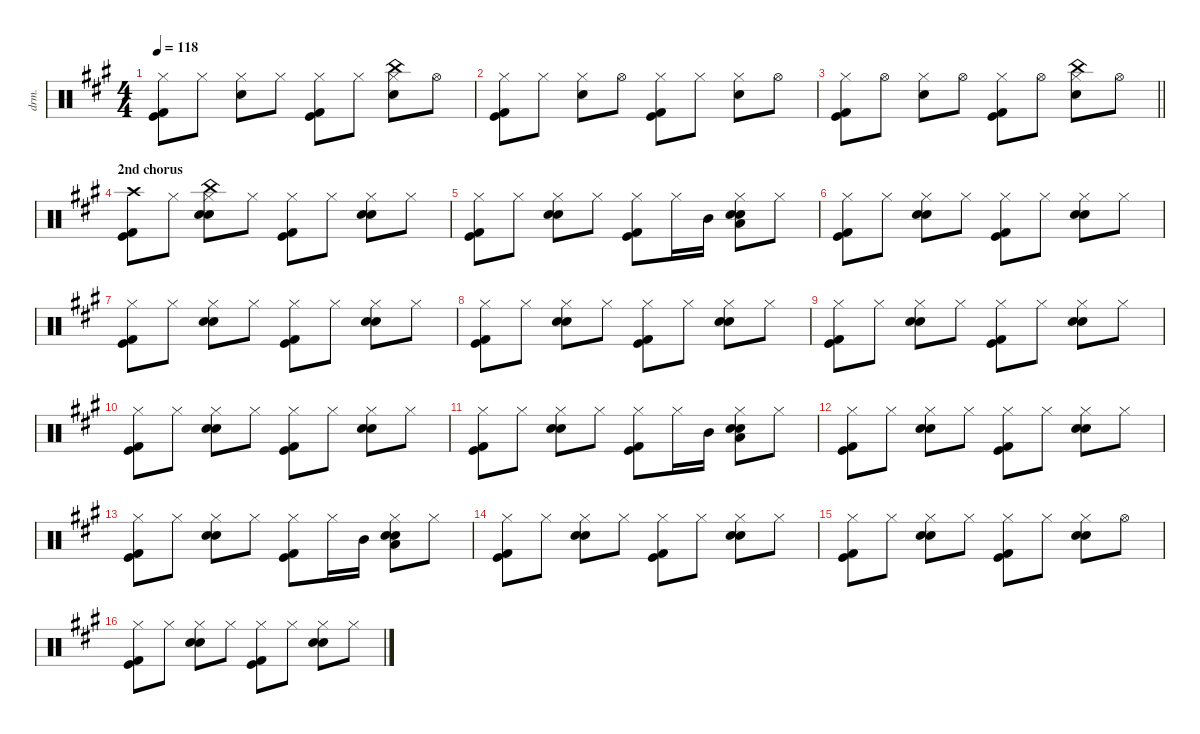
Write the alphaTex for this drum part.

\defaultSystemsLayout 4
\hideDynamics
\bracketExtendMode nobrackets
\otherSystemsTrackNameOrientation horizontal
\track ("drums" "drm.") {instrument percussion}
\staff {score}
\articulation defaults
\ts (4 4)
\tempo 118
\clef neutral
\ks f#minor
("Hi-Hat (closed)"{acc forcenatural} "Kick (hit)"{acc forcenatural} "Kick (hit) 2"{acc forcenatural}).8{dy ff} "Hi-Hat (closed)"{acc forcenatural}.8{dy f} ("Hi-Hat (closed)"{acc forcenatural} "Snare (hit) 2"{acc forcenatural}).8{dy fff} "Hi-Hat (closed)"{acc forcenatural}.8{dy ff} ("Hi-Hat (closed)"{acc forcenatural} "Kick (hit)"{acc forcenatural} "Kick (hit) 2"{acc forcenatural}).8 "Hi-Hat (closed)"{acc forcenatural}.8{dy f} ("Hi-Hat (closed)"{acc forcenatural} "China (hit)"{acc forcenatural} "Snare (hit) 2"{acc forcenatural}).8{dy ff} "Hi-Hat (open)"{acc forcenatural}.8{dy mf} |
("Hi-Hat (closed)"{acc forcenatural} "Kick (hit)"{acc forcenatural} "Kick (hit) 2"{acc forcenatural}).8{dy f} "Hi-Hat (closed)"{acc forcenatural}.8{dy mf} ("Hi-Hat (closed)"{acc forcenatural} "Snare (hit) 2"{acc forcenatural}).8{dy f} "Hi-Hat (open)"{acc forcenatural}.8{dy mf} ("Hi-Hat (closed)"{acc forcenatural} "Kick (hit)"{acc forcenatural} "Kick (hit) 2"{acc forcenatural}).8{dy f} "Hi-Hat (closed)"{acc forcenatural}.8{dy mf} ("Hi-Hat (closed)"{acc forcenatural} "Snare (hit) 2"{acc forcenatural}).8{dy f} "Hi-Hat (open)"{acc forcenatural}.8{dy mf} |
\barLineRight lightlight
("Hi-Hat (closed)"{acc forcenatural} "Kick (hit)"{acc forcenatural} "Kick (hit) 2"{acc forcenatural}).8{dy f} "Hi-Hat (open)"{acc forcenatural}.8 ("Hi-Hat (closed)"{acc forcenatural} "Snare (hit) 2"{acc forcenatural}).8 "Hi-Hat (open)"{acc forcenatural}.8 ("Hi-Hat (closed)"{acc forcenatural} "Kick (hit)"{acc forcenatural} "Kick (hit) 2"{acc forcenatural}).8 "Hi-Hat (open)"{acc forcenatural}.8 ("Hi-Hat (closed)"{acc forcenatural} "China (hit)"{acc forcenatural} "Snare (hit) 2"{acc forcenatural}).8 "Hi-Hat (open)"{acc forcenatural}.8 |
\section ("" "2nd chorus")
("Crash high (hit)"{acc forcenatural} "Kick (hit)"{acc forcenatural} "Kick (hit) 2"{acc forcenatural}).8 "Hi-Hat (closed)"{acc forcenatural}.8{dy mf} ("Hi-Hat (closed)"{acc forcenatural} "China (hit)"{acc forcenatural} "Hand Clap (hit)"{acc forcenatural} "Snare (hit) 2"{acc forcenatural}).8{dy f} "Hi-Hat (closed)"{acc forcenatural}.8{dy mf} ("Hi-Hat (closed)"{acc forcenatural} "Kick (hit)"{acc forcenatural} "Kick (hit) 2"{acc forcenatural}).8{dy f} "Hi-Hat (closed)"{acc forcenatural}.8{dy mf} ("Hi-Hat (closed)"{acc forcenatural} "Hand Clap (hit)"{acc forcenatural} "Snare (hit) 2"{acc forcenatural}).8{dy f} "Hi-Hat (closed)"{acc forcenatural}.8{dy mf} |
("Hi-Hat (closed)"{acc forcenatural} "Kick (hit)"{acc forcenatural} "Kick (hit) 2"{acc forcenatural}).8{dy f} "Hi-Hat (closed)"{acc forcenatural}.8{dy mf} ("Hi-Hat (closed)"{acc forcenatural} "Hand Clap (hit)"{acc forcenatural} "Snare (hit) 2"{acc forcenatural}).8{dy f} "Hi-Hat (closed)"{acc forcenatural}.8{dy mf} ("Hi-Hat (closed)"{acc forcenatural} "Kick (hit)"{acc forcenatural} "Kick (hit) 2"{acc forcenatural}).8{dy f} "Hi-Hat (closed)"{acc forcenatural}.16{dy mf} "Mid Tom (hit)"{acc forcenatural}.16 ("Hi-Hat (closed)"{acc forcenatural} "Hand Clap (hit)"{acc forcenatural} "Snare (hit) 2"{acc forcenatural} "Low Tom (hit)"{acc forcenatural}).8{dy f} "Hi-Hat (closed)"{acc forcenatural}.8{dy mf} |
("Hi-Hat (closed)"{acc forcenatural} "Kick (hit)"{acc forcenatural} "Kick (hit) 2"{acc forcenatural}).8{dy f} "Hi-Hat (closed)"{acc forcenatural}.8{dy mf} ("Hi-Hat (closed)"{acc forcenatural} "Hand Clap (hit)"{acc forcenatural} "Snare (hit) 2"{acc forcenatural}).8{dy f} "Hi-Hat (closed)"{acc forcenatural}.8{dy mf} ("Hi-Hat (closed)"{acc forcenatural} "Kick (hit)"{acc forcenatural} "Kick (hit) 2"{acc forcenatural}).8{dy f} "Hi-Hat (closed)"{acc forcenatural}.8{dy mf} ("Hi-Hat (closed)"{acc forcenatural} "Hand Clap (hit)"{acc forcenatural} "Snare (hit) 2"{acc forcenatural}).8{dy f} "Hi-Hat (closed)"{acc forcenatural}.8{dy mf} |
("Hi-Hat (closed)"{acc forcenatural} "Kick (hit)"{acc forcenatural} "Kick (hit) 2"{acc forcenatural}).8{dy f} "Hi-Hat (closed)"{acc forcenatural}.8{dy mf} ("Hi-Hat (closed)"{acc forcenatural} "Hand Clap (hit)"{acc forcenatural} "Snare (hit) 2"{acc forcenatural}).8{dy f} "Hi-Hat (closed)"{acc forcenatural}.8{dy mf} ("Hi-Hat (closed)"{acc forcenatural} "Kick (hit)"{acc forcenatural} "Kick (hit) 2"{acc forcenatural}).8{dy f} "Hi-Hat (closed)"{acc forcenatural}.8{dy mf} ("Hi-Hat (closed)"{acc forcenatural} "Hand Clap (hit)"{acc forcenatural} "Snare (hit) 2"{acc forcenatural}).8{dy f} "Hi-Hat (closed)"{acc forcenatural}.8{dy mf} |
("Hi-Hat (closed)"{acc forcenatural} "Kick (hit)"{acc forcenatural} "Kick (hit) 2"{acc forcenatural}).8{dy f} "Hi-Hat (closed)"{acc forcenatural}.8{dy mf} ("Hi-Hat (closed)"{acc forcenatural} "Hand Clap (hit)"{acc forcenatural} "Snare (hit) 2"{acc forcenatural}).8{dy f} "Hi-Hat (closed)"{acc forcenatural}.8{dy mf} ("Hi-Hat (closed)"{acc forcenatural} "Kick (hit)"{acc forcenatural} "Kick (hit) 2"{acc forcenatural}).8{dy f} "Hi-Hat (closed)"{acc forcenatural}.8{dy mf} ("Hi-Hat (closed)"{acc forcenatural} "Hand Clap (hit)"{acc forcenatural} "Snare (hit) 2"{acc forcenatural}).8{dy f} "Hi-Hat (closed)"{acc forcenatural}.8{dy mf} |
("Hi-Hat (closed)"{acc forcenatural} "Kick (hit)"{acc forcenatural} "Kick (hit) 2"{acc forcenatural}).8{dy f} "Hi-Hat (closed)"{acc forcenatural}.8{dy mf} ("Hi-Hat (closed)"{acc forcenatural} "Hand Clap (hit)"{acc forcenatural} "Snare (hit) 2"{acc forcenatural}).8{dy f} "Hi-Hat (closed)"{acc forcenatural}.8{dy mf} ("Hi-Hat (closed)"{acc forcenatural} "Kick (hit)"{acc forcenatural} "Kick (hit) 2"{acc forcenatural}).8{dy f} "Hi-Hat (closed)"{acc forcenatural}.8{dy mf} ("Hi-Hat (closed)"{acc forcenatural} "Hand Clap (hit)"{acc forcenatural} "Snare (hit) 2"{acc forcenatural}).8{dy f} "Hi-Hat (closed)"{acc forcenatural}.8{dy mf} |
("Hi-Hat (closed)"{acc forcenatural} "Kick (hit)"{acc forcenatural} "Kick (hit) 2"{acc forcenatural}).8{dy f} "Hi-Hat (closed)"{acc forcenatural}.8{dy mf} ("Hi-Hat (closed)"{acc forcenatural} "Hand Clap (hit)"{acc forcenatural} "Snare (hit) 2"{acc forcenatural}).8{dy f} "Hi-Hat (closed)"{acc forcenatural}.8{dy mf} ("Hi-Hat (closed)"{acc forcenatural} "Kick (hit)"{acc forcenatural} "Kick (hit) 2"{acc forcenatural}).8{dy f} "Hi-Hat (closed)"{acc forcenatural}.8{dy mf} ("Hi-Hat (closed)"{acc forcenatural} "Hand Clap (hit)"{acc forcenatural} "Snare (hit) 2"{acc forcenatural}).8{dy f} "Hi-Hat (closed)"{acc forcenatural}.8{dy mf} |
("Hi-Hat (closed)"{acc forcenatural} "Kick (hit)"{acc forcenatural} "Kick (hit) 2"{acc forcenatural}).8{dy f} "Hi-Hat (closed)"{acc forcenatural}.8{dy mf} ("Hi-Hat (closed)"{acc forcenatural} "Hand Clap (hit)"{acc forcenatural} "Snare (hit) 2"{acc forcenatural}).8{dy f} "Hi-Hat (closed)"{acc forcenatural}.8{dy mf} ("Hi-Hat (closed)"{acc forcenatural} "Kick (hit)"{acc forcenatural} "Kick (hit) 2"{acc forcenatural}).8{dy f} "Hi-Hat (closed)"{acc forcenatural}.16{dy mf} "Mid Tom (hit)"{acc forcenatural}.16 ("Hi-Hat (closed)"{acc forcenatural} "Hand Clap (hit)"{acc forcenatural} "Snare (hit) 2"{acc forcenatural} "Low Tom (hit)"{acc forcenatural}).8{dy f} "Hi-Hat (closed)"{acc forcenatural}.8{dy mf} |
("Hi-Hat (closed)"{acc forcenatural} "Kick (hit)"{acc forcenatural} "Kick (hit) 2"{acc forcenatural}).8{dy f} "Hi-Hat (closed)"{acc forcenatural}.8{dy mf} ("Hi-Hat (closed)"{acc forcenatural} "Hand Clap (hit)"{acc forcenatural} "Snare (hit) 2"{acc forcenatural}).8{dy f} "Hi-Hat (closed)"{acc forcenatural}.8{dy mf} ("Hi-Hat (closed)"{acc forcenatural} "Kick (hit)"{acc forcenatural} "Kick (hit) 2"{acc forcenatural}).8{dy f} "Hi-Hat (closed)"{acc forcenatural}.8{dy mf} ("Hi-Hat (closed)"{acc forcenatural} "Hand Clap (hit)"{acc forcenatural} "Snare (hit) 2"{acc forcenatural}).8{dy f} "Hi-Hat (closed)"{acc forcenatural}.8{dy mf} |
("Hi-Hat (closed)"{acc forcenatural} "Kick (hit)"{acc forcenatural} "Kick (hit) 2"{acc forcenatural}).8{dy f} "Hi-Hat (closed)"{acc forcenatural}.8{dy mf} ("Hi-Hat (closed)"{acc forcenatural} "Hand Clap (hit)"{acc forcenatural} "Snare (hit) 2"{acc forcenatural}).8{dy f} "Hi-Hat (closed)"{acc forcenatural}.8{dy mf} ("Hi-Hat (closed)"{acc forcenatural} "Kick (hit)"{acc forcenatural} "Kick (hit) 2"{acc forcenatural}).8{dy f} "Hi-Hat (closed)"{acc forcenatural}.16{dy mf} "Mid Tom (hit)"{acc forcenatural}.16 ("Hi-Hat (closed)"{acc forcenatural} "Hand Clap (hit)"{acc forcenatural} "Snare (hit) 2"{acc forcenatural} "Low Tom (hit)"{acc forcenatural}).8{dy f} "Hi-Hat (closed)"{acc forcenatural}.8{dy mf} |
("Hi-Hat (closed)"{acc forcenatural} "Kick (hit)"{acc forcenatural} "Kick (hit) 2"{acc forcenatural}).8{dy f} "Hi-Hat (closed)"{acc forcenatural}.8{dy mf} ("Hi-Hat (closed)"{acc forcenatural} "Hand Clap (hit)"{acc forcenatural} "Snare (hit) 2"{acc forcenatural}).8{dy f} "Hi-Hat (closed)"{acc forcenatural}.8{dy mf} ("Hi-Hat (closed)"{acc forcenatural} "Kick (hit)"{acc forcenatural} "Kick (hit) 2"{acc forcenatural}).8{dy f} "Hi-Hat (closed)"{acc forcenatural}.8{dy mf} ("Hi-Hat (closed)"{acc forcenatural} "Hand Clap (hit)"{acc forcenatural} "Snare (hit) 2"{acc forcenatural}).8{dy f} "Hi-Hat (closed)"{acc forcenatural}.8{dy mf} |
("Hi-Hat (closed)"{acc forcenatural} "Kick (hit)"{acc forcenatural} "Kick (hit) 2"{acc forcenatural}).8{dy f} "Hi-Hat (closed)"{acc forcenatural}.8{dy mf} ("Hi-Hat (closed)"{acc forcenatural} "Hand Clap (hit)"{acc forcenatural} "Snare (hit) 2"{acc forcenatural}).8{dy f} "Hi-Hat (closed)"{acc forcenatural}.8{dy mf} ("Hi-Hat (closed)"{acc forcenatural} "Kick (hit)"{acc forcenatural} "Kick (hit) 2"{acc forcenatural}).8{dy f} "Hi-Hat (closed)"{acc forcenatural}.8{dy mf} ("Hi-Hat (closed)"{acc forcenatural} "Hand Clap (hit)"{acc forcenatural} "Snare (hit) 2"{acc forcenatural}).8{dy f} "Hi-Hat (open)"{acc forcenatural}.8{dy mf} |
("Hi-Hat (closed)"{acc forcenatural} "Kick (hit)"{acc forcenatural} "Kick (hit) 2"{acc forcenatural}).8{dy f} "Hi-Hat (closed)"{acc forcenatural}.8{dy mf} ("Hi-Hat (closed)"{acc forcenatural} "Hand Clap (hit)"{acc forcenatural} "Snare (hit) 2"{acc forcenatural}).8{dy f} "Hi-Hat (closed)"{acc forcenatural}.8{dy mf} ("Hi-Hat (closed)"{acc forcenatural} "Kick (hit)"{acc forcenatural} "Kick (hit) 2"{acc forcenatural}).8{dy f} "Hi-Hat (closed)"{acc forcenatural}.8{dy mf} ("Hi-Hat (closed)"{acc forcenatural} "Hand Clap (hit)"{acc forcenatural} "Snare (hit) 2"{acc forcenatural}).8{dy f} "Hi-Hat (closed)"{acc forcenatural}.8{dy mf}
